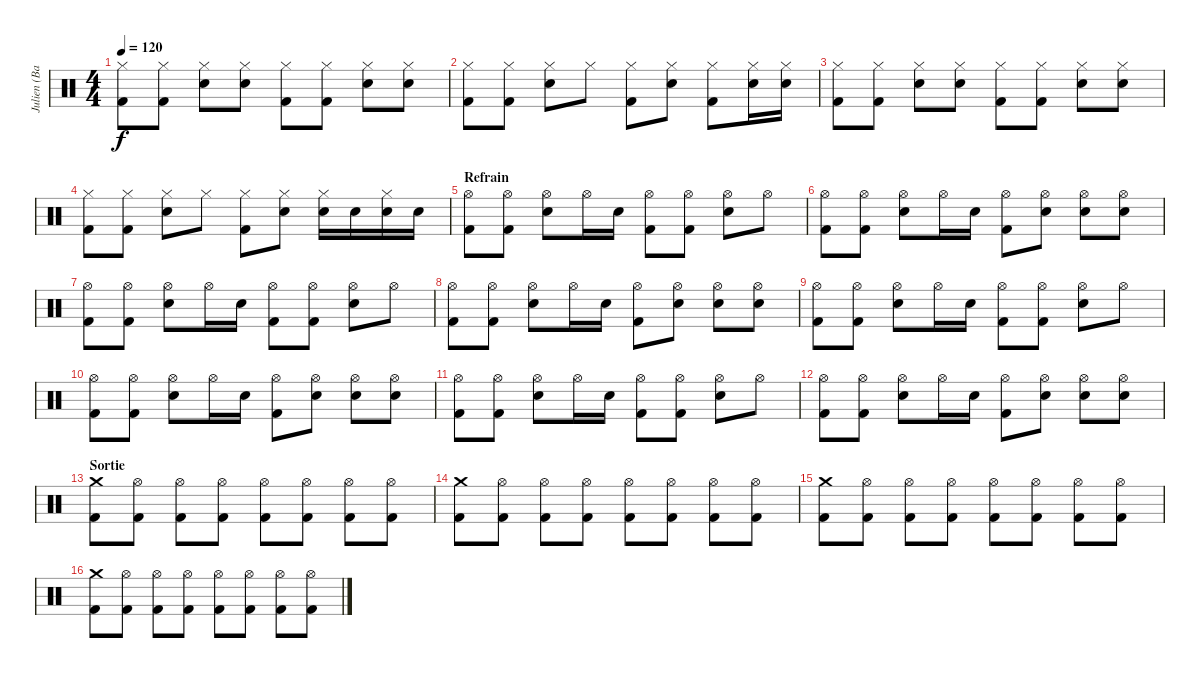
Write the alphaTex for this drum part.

\track ("Julien (Batterie)" "Julien (Ba") {instrument percussion}
\staff {score}
\articulation defaults
\ts (4 4)
\tempo 120
\clef neutral
\ks c
("Hi-Hat (closed)" "Kick (hit) 2").8{dy f} ("Hi-Hat (closed)" "Kick (hit) 2").8 ("Hi-Hat (closed)" "Electric Snare (hit)").8 ("Hi-Hat (closed)" "Electric Snare (hit)").8 ("Hi-Hat (closed)" "Kick (hit) 2").8 ("Hi-Hat (closed)" "Kick (hit) 2").8 ("Hi-Hat (closed)" "Electric Snare (hit)").8 ("Hi-Hat (closed)" "Electric Snare (hit)").8 |
("Hi-Hat (closed)" "Kick (hit) 2").8 ("Hi-Hat (closed)" "Kick (hit) 2").8 ("Hi-Hat (closed)" "Electric Snare (hit)").8 "Hi-Hat (closed)".8 ("Hi-Hat (closed)" "Kick (hit) 2").8 ("Hi-Hat (closed)" "Electric Snare (hit)").8 ("Hi-Hat (closed)" "Kick (hit) 2").8 ("Hi-Hat (closed)" "Electric Snare (hit)").16 ("Hi-Hat (closed)" "Electric Snare (hit)").16 |
("Hi-Hat (closed)" "Kick (hit) 2").8 ("Hi-Hat (closed)" "Kick (hit) 2").8 ("Hi-Hat (closed)" "Electric Snare (hit)").8 ("Hi-Hat (closed)" "Electric Snare (hit)").8 ("Hi-Hat (closed)" "Kick (hit) 2").8 ("Hi-Hat (closed)" "Kick (hit) 2").8 ("Hi-Hat (closed)" "Electric Snare (hit)").8 ("Hi-Hat (closed)" "Electric Snare (hit)").8 |
("Hi-Hat (closed)" "Kick (hit) 2").8 ("Hi-Hat (closed)" "Kick (hit) 2").8 ("Hi-Hat (closed)" "Electric Snare (hit)").8 "Hi-Hat (closed)".8 ("Hi-Hat (closed)" "Kick (hit) 2").8 ("Hi-Hat (closed)" "Electric Snare (hit)").8 ("Hi-Hat (closed)" "Electric Snare (hit)").16 "Electric Snare (hit)".16 ("Hi-Hat (closed)" "Electric Snare (hit)").16 "Electric Snare (hit)".16 |
\section ("" "Refrain")
("Hi-Hat (open)" "Kick (hit) 2").8 ("Hi-Hat (open)" "Kick (hit) 2").8 ("Hi-Hat (open)" "Electric Snare (hit)").8 "Hi-Hat (open)".16 "Electric Snare (hit)".16 ("Hi-Hat (open)" "Kick (hit) 2").8 ("Hi-Hat (open)" "Kick (hit) 2").8 ("Hi-Hat (open)" "Electric Snare (hit)").8 "Hi-Hat (open)".8 |
("Hi-Hat (open)" "Kick (hit) 2").8 ("Hi-Hat (open)" "Kick (hit) 2").8 ("Hi-Hat (open)" "Electric Snare (hit)").8 "Hi-Hat (open)".16 "Electric Snare (hit)".16 ("Hi-Hat (open)" "Kick (hit) 2").8 ("Hi-Hat (open)" "Electric Snare (hit)").8 ("Hi-Hat (open)" "Electric Snare (hit)").8 ("Hi-Hat (open)" "Electric Snare (hit)").8 |
("Hi-Hat (open)" "Kick (hit) 2").8 ("Hi-Hat (open)" "Kick (hit) 2").8 ("Hi-Hat (open)" "Electric Snare (hit)").8 "Hi-Hat (open)".16 "Electric Snare (hit)".16 ("Hi-Hat (open)" "Kick (hit) 2").8 ("Hi-Hat (open)" "Kick (hit) 2").8 ("Hi-Hat (open)" "Electric Snare (hit)").8 "Hi-Hat (open)".8 |
("Hi-Hat (open)" "Kick (hit) 2").8 ("Hi-Hat (open)" "Kick (hit) 2").8 ("Hi-Hat (open)" "Electric Snare (hit)").8 "Hi-Hat (open)".16 "Electric Snare (hit)".16 ("Hi-Hat (open)" "Kick (hit) 2").8 ("Hi-Hat (open)" "Electric Snare (hit)").8 ("Hi-Hat (open)" "Electric Snare (hit)").8 ("Hi-Hat (open)" "Electric Snare (hit)").8 |
("Hi-Hat (open)" "Kick (hit) 2").8 ("Hi-Hat (open)" "Kick (hit) 2").8 ("Hi-Hat (open)" "Electric Snare (hit)").8 "Hi-Hat (open)".16 "Electric Snare (hit)".16 ("Hi-Hat (open)" "Kick (hit) 2").8 ("Hi-Hat (open)" "Kick (hit) 2").8 ("Hi-Hat (open)" "Electric Snare (hit)").8 "Hi-Hat (open)".8 |
("Hi-Hat (open)" "Kick (hit) 2").8 ("Hi-Hat (open)" "Kick (hit) 2").8 ("Hi-Hat (open)" "Electric Snare (hit)").8 "Hi-Hat (open)".16 "Electric Snare (hit)".16 ("Hi-Hat (open)" "Kick (hit) 2").8 ("Hi-Hat (open)" "Electric Snare (hit)").8 ("Hi-Hat (open)" "Electric Snare (hit)").8 ("Hi-Hat (open)" "Electric Snare (hit)").8 |
("Hi-Hat (open)" "Kick (hit) 2").8 ("Hi-Hat (open)" "Kick (hit) 2").8 ("Hi-Hat (open)" "Electric Snare (hit)").8 "Hi-Hat (open)".16 "Electric Snare (hit)".16 ("Hi-Hat (open)" "Kick (hit) 2").8 ("Hi-Hat (open)" "Kick (hit) 2").8 ("Hi-Hat (open)" "Electric Snare (hit)").8 "Hi-Hat (open)".8 |
("Hi-Hat (open)" "Kick (hit) 2").8 ("Hi-Hat (open)" "Kick (hit) 2").8 ("Hi-Hat (open)" "Electric Snare (hit)").8 "Hi-Hat (open)".16 "Electric Snare (hit)".16 ("Hi-Hat (open)" "Kick (hit) 2").8 ("Hi-Hat (open)" "Electric Snare (hit)").8 ("Hi-Hat (open)" "Electric Snare (hit)").8 ("Hi-Hat (open)" "Electric Snare (hit)").8 |
\section ("" "Sortie ")
("Crash medium (hit)" "Kick (hit) 2").8 ("Hi-Hat (open)" "Kick (hit) 2").8 ("Hi-Hat (open)" "Kick (hit) 2").8 ("Hi-Hat (open)" "Kick (hit) 2").8 ("Hi-Hat (open)" "Kick (hit) 2").8 ("Hi-Hat (open)" "Kick (hit) 2").8 ("Hi-Hat (open)" "Kick (hit) 2").8 ("Hi-Hat (open)" "Kick (hit) 2").8 |
("Crash medium (hit)" "Kick (hit) 2").8 ("Hi-Hat (open)" "Kick (hit) 2").8 ("Hi-Hat (open)" "Kick (hit) 2").8 ("Hi-Hat (open)" "Kick (hit) 2").8 ("Hi-Hat (open)" "Kick (hit) 2").8 ("Hi-Hat (open)" "Kick (hit) 2").8 ("Hi-Hat (open)" "Kick (hit) 2").8 ("Hi-Hat (open)" "Kick (hit) 2").8 |
("Crash medium (hit)" "Kick (hit) 2").8 ("Hi-Hat (open)" "Kick (hit) 2").8 ("Hi-Hat (open)" "Kick (hit) 2").8 ("Hi-Hat (open)" "Kick (hit) 2").8 ("Hi-Hat (open)" "Kick (hit) 2").8 ("Hi-Hat (open)" "Kick (hit) 2").8 ("Hi-Hat (open)" "Kick (hit) 2").8 ("Hi-Hat (open)" "Kick (hit) 2").8 |
("Crash medium (hit)" "Kick (hit) 2").8 ("Hi-Hat (open)" "Kick (hit) 2").8 ("Hi-Hat (open)" "Kick (hit) 2").8 ("Hi-Hat (open)" "Kick (hit) 2").8 ("Hi-Hat (open)" "Kick (hit) 2").8 ("Hi-Hat (open)" "Kick (hit) 2").8 ("Hi-Hat (open)" "Kick (hit) 2").8 ("Hi-Hat (open)" "Kick (hit) 2").8
